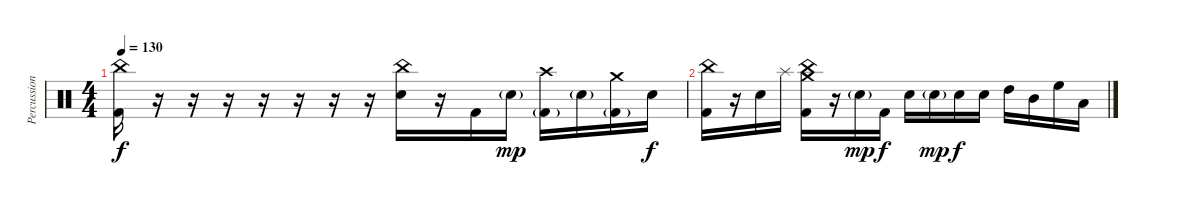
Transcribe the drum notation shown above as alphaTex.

\track ("Percussion" "Percussion") {instrument percussion}
\staff {score}
\articulation defaults
\ts (4 4)
\tempo 130
\clef neutral
\ks c
("China (hit)" "Kick (hit) 2").16{dy f} r.16 r.16 r.16 r.16 r.16 r.16 r.16 ("China (hit)" "Snare (hit) 2").16 r.16 "Kick (hit) 2".16 "Snare (hit) 2"{g}.16{dy mp} ("Crash high (hit)" "Kick (hit) 2"{g}).16 "Snare (hit) 2"{g}.16 ("Crash medium (hit)" "Kick (hit) 2"{g}).16 "Snare (hit) 2".16{dy f} |
("China (hit)" "Kick (hit) 2").16 r.16 "Snare (hit) 2".16 "Splash (hit)".16 ("Crash medium (hit)" "China (hit)" "Kick (hit) 2").16 r.16 "Snare (hit) 2"{g}.16{dy mp} "Kick (hit) 2".16{dy f} "Snare (hit) 2".16 "Snare (hit) 2"{g}.16{dy mp} "Snare (hit) 2".16{dy f} "Snare (hit) 2".16 "High Tom (hit)".16 "Mid Tom (hit)".16 "High Floor Tom (hit)".16 "Low Tom (hit)".16
